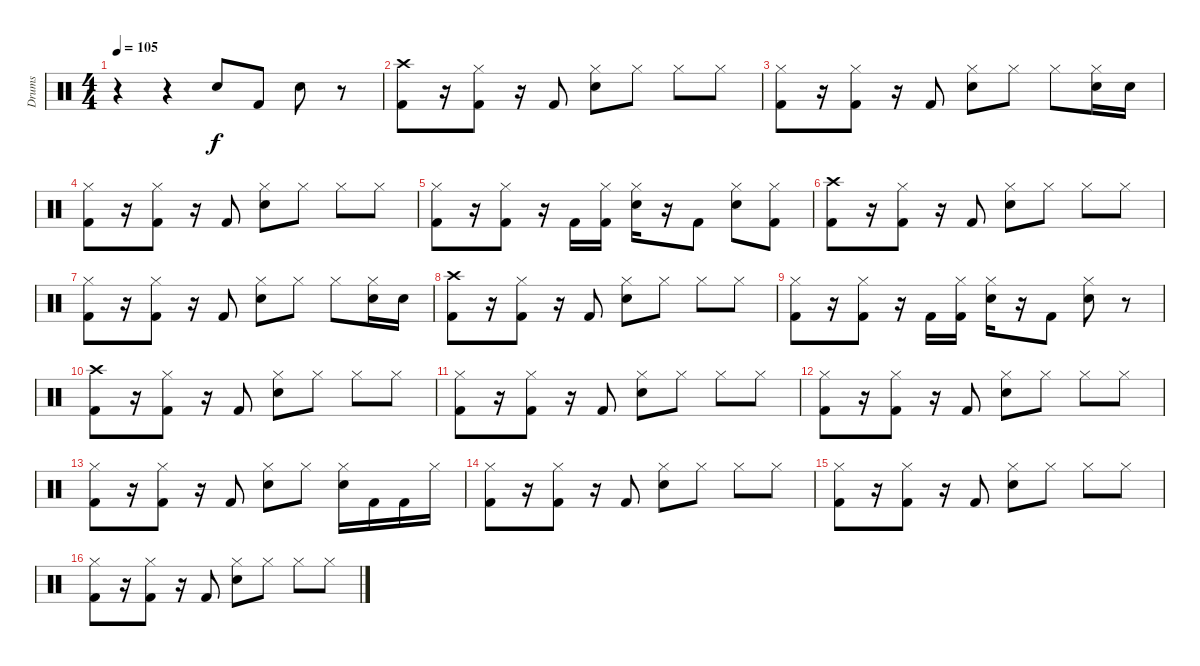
\track ("Drums" "Drums") {instrument percussion}
\staff {score}
\articulation defaults
\ts (4 4)
\tempo 105
\clef neutral
\ks c
r.4{dy f} r.4 "Electric Snare (hit)".8 "Kick (hit) 2".8 "Electric Snare (hit)".8 r.8 |
("Crash high (hit)" "Kick (hit) 2").8 r.16 ("Hi-Hat (closed)" "Kick (hit) 2").8 r.16 "Kick (hit) 2".8 ("Hi-Hat (closed)" "Electric Snare (hit)").8 "Hi-Hat (closed)".8 "Hi-Hat (closed)".8 "Hi-Hat (closed)".8 |
("Hi-Hat (closed)" "Kick (hit) 2").8 r.16 ("Hi-Hat (closed)" "Kick (hit) 2").8 r.16 "Kick (hit) 2".8 ("Hi-Hat (closed)" "Electric Snare (hit)").8 "Hi-Hat (closed)".8 "Hi-Hat (closed)".8 ("Hi-Hat (closed)" "Electric Snare (hit)").16 "Electric Snare (hit)".16 |
("Hi-Hat (closed)" "Kick (hit) 2").8 r.16 ("Hi-Hat (closed)" "Kick (hit) 2").8 r.16 "Kick (hit) 2".8 ("Hi-Hat (closed)" "Electric Snare (hit)").8 "Hi-Hat (closed)".8 "Hi-Hat (closed)".8 "Hi-Hat (closed)".8 |
("Hi-Hat (closed)" "Kick (hit) 2").8 r.16 ("Hi-Hat (closed)" "Kick (hit) 2").8 r.16 "Kick (hit) 2".16 ("Hi-Hat (closed)" "Kick (hit) 2").16 ("Electric Snare (hit)" "Hi-Hat (closed)").16 r.16 "Kick (hit) 2".8 ("Hi-Hat (closed)" "Electric Snare (hit)").8 ("Hi-Hat (closed)" "Kick (hit) 2").8 |
("Crash high (hit)" "Kick (hit) 2").8 r.16 ("Hi-Hat (closed)" "Kick (hit) 2").8 r.16 "Kick (hit) 2".8 ("Hi-Hat (closed)" "Electric Snare (hit)").8 "Hi-Hat (closed)".8 "Hi-Hat (closed)".8 "Hi-Hat (closed)".8 |
("Hi-Hat (closed)" "Kick (hit) 2").8 r.16 ("Hi-Hat (closed)" "Kick (hit) 2").8 r.16 "Kick (hit) 2".8 ("Hi-Hat (closed)" "Electric Snare (hit)").8 "Hi-Hat (closed)".8 "Hi-Hat (closed)".8 ("Hi-Hat (closed)" "Electric Snare (hit)").16 "Electric Snare (hit)".16 |
("Crash high (hit)" "Kick (hit) 2").8 r.16 ("Hi-Hat (closed)" "Kick (hit) 2").8 r.16 "Kick (hit) 2".8 ("Hi-Hat (closed)" "Electric Snare (hit)").8 "Hi-Hat (closed)".8 "Hi-Hat (closed)".8 "Hi-Hat (closed)".8 |
("Hi-Hat (closed)" "Kick (hit) 2").8 r.16 ("Hi-Hat (closed)" "Kick (hit) 2").8 r.16 "Kick (hit) 2".16 ("Hi-Hat (closed)" "Kick (hit) 2").16 ("Electric Snare (hit)" "Hi-Hat (closed)").16 r.16 "Kick (hit) 2".8 ("Hi-Hat (closed)" "Electric Snare (hit)").8 r.8 |
("Crash high (hit)" "Kick (hit) 2").8 r.16 ("Hi-Hat (closed)" "Kick (hit) 2").8 r.16 "Kick (hit) 2".8 ("Hi-Hat (closed)" "Electric Snare (hit)").8 "Hi-Hat (closed)".8 "Hi-Hat (closed)".8 "Hi-Hat (closed)".8 |
("Hi-Hat (closed)" "Kick (hit) 2").8 r.16 ("Hi-Hat (closed)" "Kick (hit) 2").8 r.16 "Kick (hit) 2".8 ("Hi-Hat (closed)" "Electric Snare (hit)").8 "Hi-Hat (closed)".8 "Hi-Hat (closed)".8 "Hi-Hat (closed)".8 |
("Hi-Hat (closed)" "Kick (hit) 2").8 r.16 ("Hi-Hat (closed)" "Kick (hit) 2").8 r.16 "Kick (hit) 2".8 ("Hi-Hat (closed)" "Electric Snare (hit)").8 "Hi-Hat (closed)".8 "Hi-Hat (closed)".8 "Hi-Hat (closed)".8 |
("Hi-Hat (closed)" "Kick (hit) 2").8 r.16 ("Hi-Hat (closed)" "Kick (hit) 2").8 r.16 "Kick (hit) 2".8 ("Hi-Hat (closed)" "Electric Snare (hit)").8 "Hi-Hat (closed)".8 ("Hi-Hat (closed)" "Electric Snare (hit)").16 "Kick (hit) 2".16 "Kick (hit) 2".16 "Hi-Hat (closed)".16 |
("Hi-Hat (closed)" "Kick (hit) 2").8 r.16 ("Hi-Hat (closed)" "Kick (hit) 2").8 r.16 "Kick (hit) 2".8 ("Hi-Hat (closed)" "Electric Snare (hit)").8 "Hi-Hat (closed)".8 "Hi-Hat (closed)".8 "Hi-Hat (closed)".8 |
("Hi-Hat (closed)" "Kick (hit) 2").8 r.16 ("Hi-Hat (closed)" "Kick (hit) 2").8 r.16 "Kick (hit) 2".8 ("Hi-Hat (closed)" "Electric Snare (hit)").8 "Hi-Hat (closed)".8 "Hi-Hat (closed)".8 "Hi-Hat (closed)".8 |
("Hi-Hat (closed)" "Kick (hit) 2").8 r.16 ("Hi-Hat (closed)" "Kick (hit) 2").8 r.16 "Kick (hit) 2".8 ("Hi-Hat (closed)" "Electric Snare (hit)").8 "Hi-Hat (closed)".8 "Hi-Hat (closed)".8 "Hi-Hat (closed)".8
